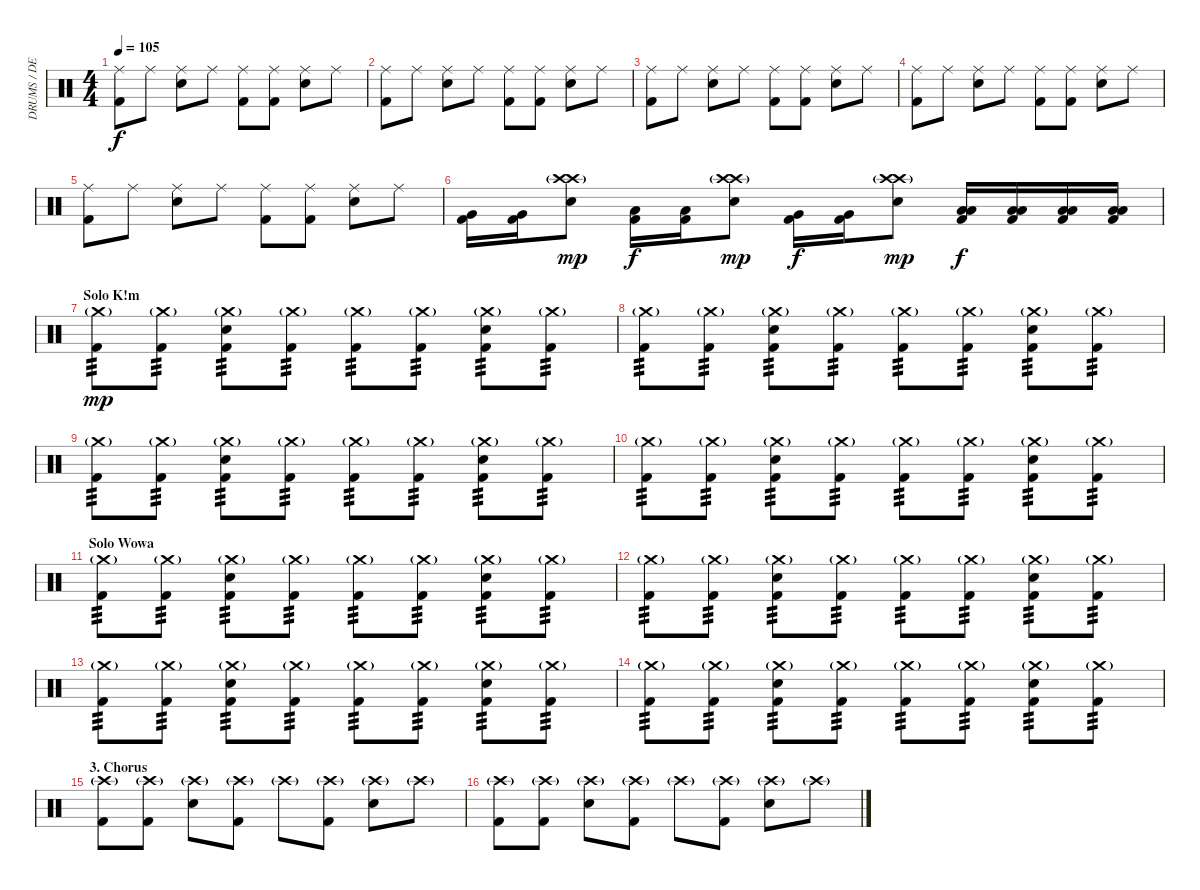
\track ("DRUMS / DENNn!S" "DRUMS / DE") {instrument percussion}
\staff {score}
\articulation defaults
\ts (4 4)
\tempo 105
\clef neutral
\ks c
("Ride (middle)" "Kick (hit) 2").8{dy f} "Ride (middle)".8 ("Ride (middle)" "Electric Snare (hit)").8 "Ride (middle)".8 ("Ride (middle)" "Kick (hit) 2").8 ("Ride (middle)" "Kick (hit) 2").8 ("Ride (middle)" "Electric Snare (hit)").8 "Ride (middle)".8 |
("Ride (middle)" "Kick (hit) 2").8 "Ride (middle)".8 ("Ride (middle)" "Electric Snare (hit)").8 "Ride (middle)".8 ("Ride (middle)" "Kick (hit) 2").8 ("Ride (middle)" "Kick (hit) 2").8 ("Ride (middle)" "Electric Snare (hit)").8 "Ride (middle)".8 |
("Ride (middle)" "Kick (hit) 2").8 "Ride (middle)".8 ("Ride (middle)" "Electric Snare (hit)").8 "Ride (middle)".8 ("Ride (middle)" "Kick (hit) 2").8 ("Ride (middle)" "Kick (hit) 2").8 ("Ride (middle)" "Electric Snare (hit)").8 "Ride (middle)".8 |
("Ride (middle)" "Kick (hit) 2").8 "Ride (middle)".8 ("Ride (middle)" "Electric Snare (hit)").8 "Ride (middle)".8 ("Ride (middle)" "Kick (hit) 2").8 ("Ride (middle)" "Kick (hit) 2").8 ("Ride (middle)" "Electric Snare (hit)").8 "Ride (middle)".8 |
("Ride (middle)" "Kick (hit) 2").8 "Ride (middle)".8 ("Ride (middle)" "Electric Snare (hit)").8 "Ride (middle)".8 ("Ride (middle)" "Kick (hit) 2").8 ("Ride (middle)" "Kick (hit) 2").8 ("Ride (middle)" "Electric Snare (hit)").8 "Ride (middle)".8 |
("Very Low Tom (hit)" "Kick (hit) 2").16 ("Very Low Tom (hit)" "Kick (hit) 2").16 ("Crash high (hit)"{g} "Crash high (hit)"{g} "Electric Snare (hit)").8{dy mp} ("Low Tom (hit)" "Kick (hit) 2").16{dy f} ("Low Tom (hit)" "Kick (hit) 2").16 ("Crash high (hit)"{g} "Crash high (hit)"{g} "Electric Snare (hit)").8{dy mp} ("Very Low Tom (hit)" "Kick (hit) 2").16{dy f} ("Very Low Tom (hit)" "Kick (hit) 2").16 ("Crash high (hit)"{g} "Crash high (hit)"{g} "Electric Snare (hit)").8{dy mp} ("Low Tom (hit)" "Low Floor Tom (hit)" "Kick (hit) 2").16{dy f} ("Low Tom (hit)" "Low Floor Tom (hit)" "Kick (hit) 2").16 ("Low Tom (hit)" "Low Floor Tom (hit)" "Kick (hit) 2").16 ("Low Tom (hit)" "Low Floor Tom (hit)" "Kick (hit) 2").16 |
\section ("" "Solo K!m")
("Crash medium (hit)"{g} "Kick (hit) 2").8{tp 3 dy mp} ("Crash medium (hit)"{g} "Kick (hit) 2").8{tp 3} ("Crash medium (hit)"{g} "Kick (hit) 2" "Electric Snare (hit)").8{tp 3} ("Crash medium (hit)"{g} "Kick (hit) 2").8{tp 3} ("Crash medium (hit)"{g} "Kick (hit) 2").8{tp 3} ("Crash medium (hit)"{g} "Kick (hit) 2").8{tp 3} ("Crash medium (hit)"{g} "Kick (hit) 2" "Electric Snare (hit)").8{tp 3} ("Crash medium (hit)"{g} "Kick (hit) 2").8{tp 3} |
("Crash medium (hit)"{g} "Kick (hit) 2").8{tp 3} ("Crash medium (hit)"{g} "Kick (hit) 2").8{tp 3} ("Crash medium (hit)"{g} "Kick (hit) 2" "Electric Snare (hit)").8{tp 3} ("Crash medium (hit)"{g} "Kick (hit) 2").8{tp 3} ("Crash medium (hit)"{g} "Kick (hit) 2").8{tp 3} ("Crash medium (hit)"{g} "Kick (hit) 2").8{tp 3} ("Crash medium (hit)"{g} "Kick (hit) 2" "Electric Snare (hit)").8{tp 3} ("Crash medium (hit)"{g} "Kick (hit) 2").8{tp 3} |
("Crash medium (hit)"{g} "Kick (hit) 2").8{tp 3} ("Crash medium (hit)"{g} "Kick (hit) 2").8{tp 3} ("Crash medium (hit)"{g} "Kick (hit) 2" "Electric Snare (hit)").8{tp 3} ("Crash medium (hit)"{g} "Kick (hit) 2").8{tp 3} ("Crash medium (hit)"{g} "Kick (hit) 2").8{tp 3} ("Crash medium (hit)"{g} "Kick (hit) 2").8{tp 3} ("Crash medium (hit)"{g} "Kick (hit) 2" "Electric Snare (hit)").8{tp 3} ("Crash medium (hit)"{g} "Kick (hit) 2").8{tp 3} |
("Crash medium (hit)"{g} "Kick (hit) 2").8{tp 3} ("Crash medium (hit)"{g} "Kick (hit) 2").8{tp 3} ("Crash medium (hit)"{g} "Kick (hit) 2" "Electric Snare (hit)").8{tp 3} ("Crash medium (hit)"{g} "Kick (hit) 2").8{tp 3} ("Crash medium (hit)"{g} "Kick (hit) 2").8{tp 3} ("Crash medium (hit)"{g} "Kick (hit) 2").8{tp 3} ("Crash medium (hit)"{g} "Kick (hit) 2" "Electric Snare (hit)").8{tp 3} ("Crash medium (hit)"{g} "Kick (hit) 2").8{tp 3} |
\section ("" "Solo Wowa")
("Crash medium (hit)"{g} "Kick (hit) 2").8{tp 3} ("Crash medium (hit)"{g} "Kick (hit) 2").8{tp 3} ("Crash medium (hit)"{g} "Kick (hit) 2" "Electric Snare (hit)").8{tp 3} ("Crash medium (hit)"{g} "Kick (hit) 2").8{tp 3} ("Crash medium (hit)"{g} "Kick (hit) 2").8{tp 3} ("Crash medium (hit)"{g} "Kick (hit) 2").8{tp 3} ("Crash medium (hit)"{g} "Kick (hit) 2" "Electric Snare (hit)").8{tp 3} ("Crash medium (hit)"{g} "Kick (hit) 2").8{tp 3} |
("Crash medium (hit)"{g} "Kick (hit) 2").8{tp 3} ("Crash medium (hit)"{g} "Kick (hit) 2").8{tp 3} ("Crash medium (hit)"{g} "Kick (hit) 2" "Electric Snare (hit)").8{tp 3} ("Crash medium (hit)"{g} "Kick (hit) 2").8{tp 3} ("Crash medium (hit)"{g} "Kick (hit) 2").8{tp 3} ("Crash medium (hit)"{g} "Kick (hit) 2").8{tp 3} ("Crash medium (hit)"{g} "Kick (hit) 2" "Electric Snare (hit)").8{tp 3} ("Crash medium (hit)"{g} "Kick (hit) 2").8{tp 3} |
("Crash medium (hit)"{g} "Kick (hit) 2").8{tp 3} ("Crash medium (hit)"{g} "Kick (hit) 2").8{tp 3} ("Crash medium (hit)"{g} "Kick (hit) 2" "Electric Snare (hit)").8{tp 3} ("Crash medium (hit)"{g} "Kick (hit) 2").8{tp 3} ("Crash medium (hit)"{g} "Kick (hit) 2").8{tp 3} ("Crash medium (hit)"{g} "Kick (hit) 2").8{tp 3} ("Crash medium (hit)"{g} "Kick (hit) 2" "Electric Snare (hit)").8{tp 3} ("Crash medium (hit)"{g} "Kick (hit) 2").8{tp 3} |
("Crash medium (hit)"{g} "Kick (hit) 2").8{tp 3} ("Crash medium (hit)"{g} "Kick (hit) 2").8{tp 3} ("Crash medium (hit)"{g} "Kick (hit) 2" "Electric Snare (hit)").8{tp 3} ("Crash medium (hit)"{g} "Kick (hit) 2").8{tp 3} ("Crash medium (hit)"{g} "Kick (hit) 2").8{tp 3} ("Crash medium (hit)"{g} "Kick (hit) 2").8{tp 3} ("Crash medium (hit)"{g} "Kick (hit) 2" "Electric Snare (hit)").8{tp 3} ("Crash medium (hit)"{g} "Kick (hit) 2").8{tp 3} |
\section ("" "3. Chorus")
("Crash high (hit)"{g} "Kick (hit) 2").8 ("Crash high (hit)"{g} "Kick (hit) 2").8 ("Crash high (hit)"{g} "Electric Snare (hit)").8 ("Crash high (hit)"{g} "Kick (hit) 2").8 "Crash high (hit)"{g}.8 ("Crash high (hit)"{g} "Kick (hit) 2").8 ("Crash high (hit)"{g} "Electric Snare (hit)").8 "Crash high (hit)"{g}.8 |
("Crash high (hit)"{g} "Kick (hit) 2").8 ("Crash high (hit)"{g} "Kick (hit) 2").8 ("Crash high (hit)"{g} "Electric Snare (hit)").8 ("Crash high (hit)"{g} "Kick (hit) 2").8 "Crash high (hit)"{g}.8 ("Crash high (hit)"{g} "Kick (hit) 2").8 ("Crash high (hit)"{g} "Electric Snare (hit)").8 "Crash high (hit)"{g}.8
